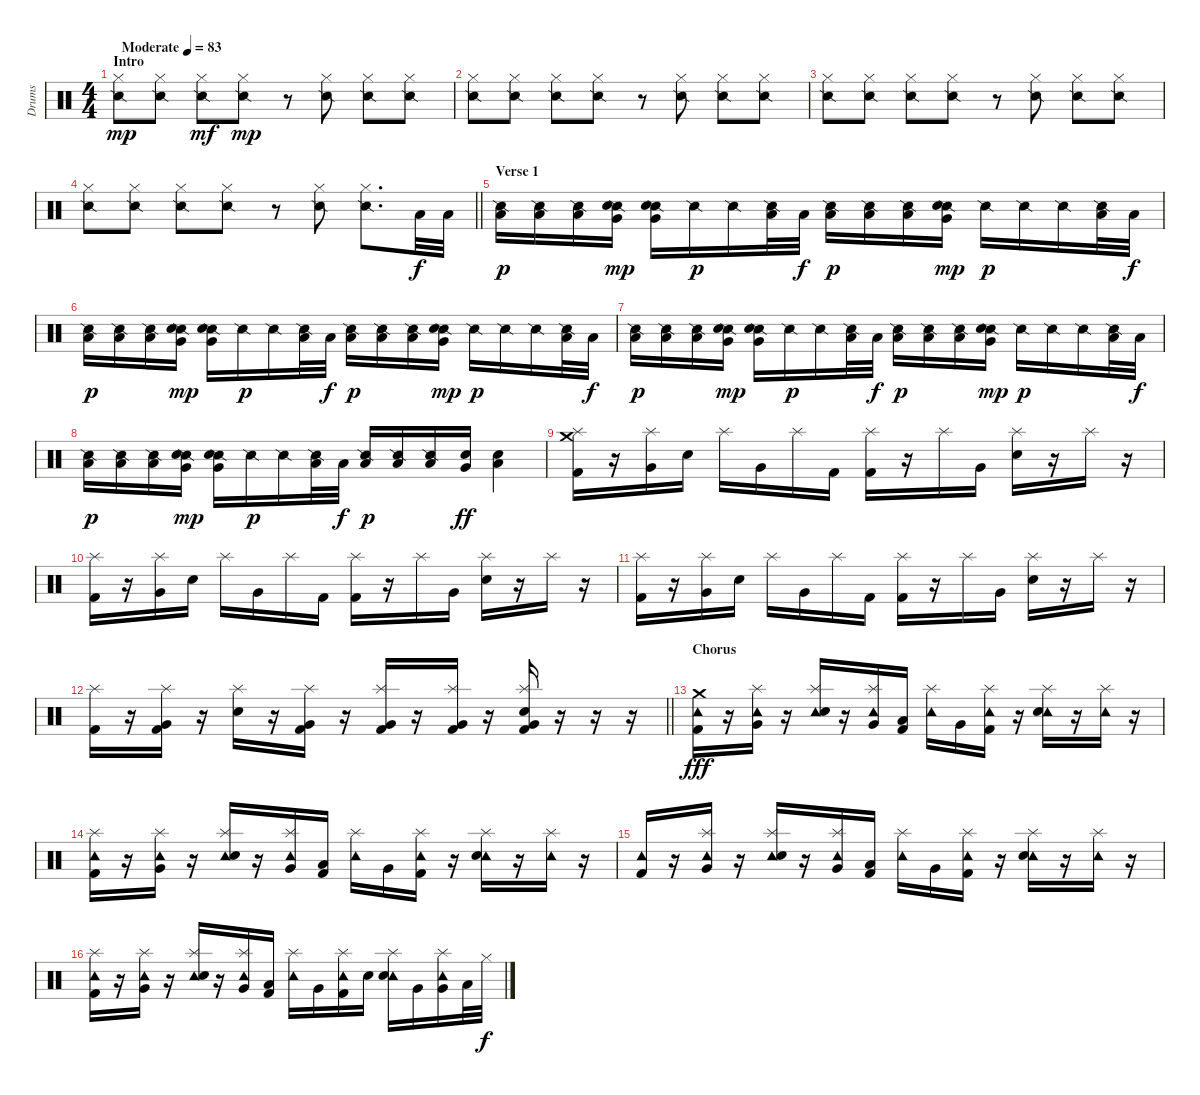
\track ("Drums" "Drums") {instrument percussion}
\staff {score}
\articulation defaults
\ts (4 4)
\section ("" "Intro")
\tempo (83 "Moderate")
\clef neutral
\ks c
("Hi-Hat (closed)" "Snare (side stick) 2").8{dy mp} ("Hi-Hat (closed)" "Snare (side stick) 2").8 ("Hi-Hat (closed)" "Snare (side stick) 2").8{dy mf} ("Hi-Hat (closed)" "Snare (side stick) 2").8{dy mp} r.8 ("Hi-Hat (closed)" "Snare (side stick) 2").8 ("Hi-Hat (closed)" "Snare (side stick) 2").8 ("Hi-Hat (closed)" "Snare (side stick) 2").8 |
("Hi-Hat (closed)" "Snare (side stick) 2").8 ("Hi-Hat (closed)" "Snare (side stick) 2").8 ("Hi-Hat (closed)" "Snare (side stick) 2").8 ("Hi-Hat (closed)" "Snare (side stick) 2").8 r.8 ("Hi-Hat (closed)" "Snare (side stick) 2").8 ("Hi-Hat (closed)" "Snare (side stick) 2").8 ("Hi-Hat (closed)" "Snare (side stick) 2").8 |
("Hi-Hat (closed)" "Snare (side stick) 2").8 ("Hi-Hat (closed)" "Snare (side stick) 2").8 ("Hi-Hat (closed)" "Snare (side stick) 2").8 ("Hi-Hat (closed)" "Snare (side stick) 2").8 r.8 ("Hi-Hat (closed)" "Snare (side stick) 2").8 ("Hi-Hat (closed)" "Snare (side stick) 2").8 ("Hi-Hat (closed)" "Snare (side stick) 2").8 |
\barLineRight lightlight
("Hi-Hat (closed)" "Snare (side stick) 2").8 ("Hi-Hat (closed)" "Snare (side stick) 2").8 ("Hi-Hat (closed)" "Snare (side stick) 2").8 ("Hi-Hat (closed)" "Snare (side stick) 2").8 r.8 ("Hi-Hat (closed)" "Snare (side stick) 2").8 ("Hi-Hat (closed)" "Snare (side stick) 2").8{d} "Low Floor Tom (hit)".32{dy f} "Low Floor Tom (hit)".32 |
\section ("" "Verse 1")
("Snare (side stick) 2" "Low Floor Tom (hit)").16{dy p} ("Snare (side stick) 2" "Low Floor Tom (hit)").16 ("Snare (side stick) 2" "Low Floor Tom (hit)").16 ("Snare (side stick) 2" "Very Low Tom (hit)" "Snare (hit) 2").16{dy mp} ("Snare (side stick) 2" "Very Low Tom (hit)" "Snare (hit) 2").16 "Snare (side stick) 2".16{dy p} "Snare (side stick) 2".16 ("Snare (side stick) 2" "Low Floor Tom (hit)").32 "Low Floor Tom (hit)".32{dy f} ("Snare (side stick) 2" "Low Floor Tom (hit)").16{dy p} ("Snare (side stick) 2" "Low Floor Tom (hit)").16 ("Snare (side stick) 2" "Low Floor Tom (hit)").16 ("Snare (side stick) 2" "Very Low Tom (hit)" "Snare (hit) 2").16{dy mp} "Snare (side stick) 2".16{dy p} "Snare (side stick) 2".16 "Snare (side stick) 2".16 ("Snare (side stick) 2" "Low Floor Tom (hit)").32 "Low Floor Tom (hit)".32{dy f} |
("Snare (side stick) 2" "Low Floor Tom (hit)").16{dy p} ("Snare (side stick) 2" "Low Floor Tom (hit)").16 ("Snare (side stick) 2" "Low Floor Tom (hit)").16 ("Snare (side stick) 2" "Very Low Tom (hit)" "Snare (hit) 2").16{dy mp} ("Snare (side stick) 2" "Very Low Tom (hit)" "Snare (hit) 2").16 "Snare (side stick) 2".16{dy p} "Snare (side stick) 2".16 ("Snare (side stick) 2" "Low Floor Tom (hit)").32 "Low Floor Tom (hit)".32{dy f} ("Snare (side stick) 2" "Low Floor Tom (hit)").16{dy p} ("Snare (side stick) 2" "Low Floor Tom (hit)").16 ("Snare (side stick) 2" "Low Floor Tom (hit)").16 ("Snare (side stick) 2" "Very Low Tom (hit)" "Snare (hit) 2").16{dy mp} "Snare (side stick) 2".16{dy p} "Snare (side stick) 2".16 "Snare (side stick) 2".16 ("Snare (side stick) 2" "Low Floor Tom (hit)").32 "Low Floor Tom (hit)".32{dy f} |
("Snare (side stick) 2" "Low Floor Tom (hit)").16{dy p} ("Snare (side stick) 2" "Low Floor Tom (hit)").16 ("Snare (side stick) 2" "Low Floor Tom (hit)").16 ("Snare (side stick) 2" "Very Low Tom (hit)" "Snare (hit) 2").16{dy mp} ("Snare (side stick) 2" "Very Low Tom (hit)" "Snare (hit) 2").16 "Snare (side stick) 2".16{dy p} "Snare (side stick) 2".16 ("Snare (side stick) 2" "Low Floor Tom (hit)").32 "Low Floor Tom (hit)".32{dy f} ("Snare (side stick) 2" "Low Floor Tom (hit)").16{dy p} ("Snare (side stick) 2" "Low Floor Tom (hit)").16 ("Snare (side stick) 2" "Low Floor Tom (hit)").16 ("Snare (side stick) 2" "Very Low Tom (hit)" "Snare (hit) 2").16{dy mp} "Snare (side stick) 2".16{dy p} "Snare (side stick) 2".16 "Snare (side stick) 2".16 ("Snare (side stick) 2" "Low Floor Tom (hit)").32 "Low Floor Tom (hit)".32{dy f} |
("Snare (side stick) 2" "Low Floor Tom (hit)").16{dy p} ("Snare (side stick) 2" "Low Floor Tom (hit)").16 ("Snare (side stick) 2" "Low Floor Tom (hit)").16 ("Snare (side stick) 2" "Very Low Tom (hit)" "Snare (hit) 2").16{dy mp} ("Snare (side stick) 2" "Very Low Tom (hit)" "Snare (hit) 2").16 "Snare (side stick) 2".16{dy p} "Snare (side stick) 2".16 ("Snare (side stick) 2" "Low Floor Tom (hit)").32 "Low Floor Tom (hit)".32{dy f} ("Snare (side stick) 2" "Low Floor Tom (hit)").16{dy p} ("Snare (side stick) 2" "Low Floor Tom (hit)").16 ("Snare (side stick) 2" "Low Floor Tom (hit)").16 ("Snare (hit) 2" "Very Low Tom (hit)").16{dy ff} ("Snare (hit) 2" "Low Floor Tom (hit)").4 |
("Crash medium (hit)" "Splash (hit)" "Kick (hit) 2").16 r.16 ("Splash (hit)" "Very Low Tom (hit)").16 "Snare (hit) 2".16 "Splash (hit)".16 "Very Low Tom (hit)".16 "Splash (hit)".16 "Kick (hit) 2".16 ("Splash (hit)" "Kick (hit) 2").16 r.16 "Splash (hit)".16 "Very Low Tom (hit)".16 ("Splash (hit)" "Snare (hit) 2").16 r.16 "Splash (hit)".16 r.16 |
("Splash (hit)" "Kick (hit) 2").16 r.16 ("Splash (hit)" "Very Low Tom (hit)").16 "Snare (hit) 2".16 "Splash (hit)".16 "Very Low Tom (hit)".16 "Splash (hit)".16 "Kick (hit) 2".16 ("Splash (hit)" "Kick (hit) 2").16 r.16 "Splash (hit)".16 "Very Low Tom (hit)".16 ("Splash (hit)" "Snare (hit) 2").16 r.16 "Splash (hit)".16 r.16 |
("Splash (hit)" "Kick (hit) 2").16 r.16 ("Splash (hit)" "Very Low Tom (hit)").16 "Snare (hit) 2".16 "Splash (hit)".16 "Very Low Tom (hit)".16 "Splash (hit)".16 "Kick (hit) 2".16 ("Splash (hit)" "Kick (hit) 2").16 r.16 "Splash (hit)".16 "Very Low Tom (hit)".16 ("Splash (hit)" "Snare (hit) 2").16 r.16 "Splash (hit)".16 r.16 |
\barLineRight lightlight
("Splash (hit)" "Kick (hit) 2").16 r.16 ("Splash (hit)" "Very Low Tom (hit)" "Kick (hit) 2").16 r.16 ("Splash (hit)" "Snare (hit) 2").16 r.16 ("Splash (hit)" "Very Low Tom (hit)" "Kick (hit) 2").16 r.16 ("Splash (hit)" "Very Low Tom (hit)" "Kick (hit) 2").16 r.16 ("Splash (hit)" "Very Low Tom (hit)" "Kick (hit) 2").16 r.16 ("Splash (hit)" "Snare (hit) 2" "Very Low Tom (hit)" "Kick (hit) 2").16 r.16 r.16 r.16 |
\section ("" "Chorus")
("Crash medium (hit)" "Tambourine (hit)" "Kick (hit) 2").16{dy fff} r.16 ("Splash (hit)" "Tambourine (hit)" "Very Low Tom (hit)").16 r.16 ("Splash (hit)" "Tambourine (hit)" "Snare (hit) 2").16 r.16 ("Splash (hit)" "Tambourine (hit)" "Very Low Tom (hit)").16 ("Low Floor Tom (hit)" "Kick (hit) 2").16 ("Splash (hit)" "Tambourine (hit)").16 "Very Low Tom (hit)".16 ("Splash (hit)" "Tambourine (hit)" "Kick (hit) 2").16 r.16 ("Splash (hit)" "Tambourine (hit)" "Snare (hit) 2").16 r.16 ("Splash (hit)" "Tambourine (hit)").16 r.16 |
("Splash (hit)" "Tambourine (hit)" "Kick (hit) 2").16 r.16 ("Splash (hit)" "Tambourine (hit)" "Very Low Tom (hit)").16 r.16 ("Splash (hit)" "Tambourine (hit)" "Snare (hit) 2").16 r.16 ("Splash (hit)" "Tambourine (hit)" "Very Low Tom (hit)").16 ("Low Floor Tom (hit)" "Kick (hit) 2").16 ("Splash (hit)" "Tambourine (hit)").16 "Very Low Tom (hit)".16 ("Splash (hit)" "Tambourine (hit)" "Kick (hit) 2").16 r.16 ("Splash (hit)" "Tambourine (hit)" "Snare (hit) 2").16 r.16 ("Splash (hit)" "Tambourine (hit)").16 r.16 |
("Tambourine (hit)" "Kick (hit) 2").16 r.16 ("Splash (hit)" "Tambourine (hit)" "Very Low Tom (hit)").16 r.16 ("Splash (hit)" "Tambourine (hit)" "Snare (hit) 2").16 r.16 ("Splash (hit)" "Tambourine (hit)" "Very Low Tom (hit)").16 ("Low Floor Tom (hit)" "Kick (hit) 2").16 ("Splash (hit)" "Tambourine (hit)").16 "Very Low Tom (hit)".16 ("Splash (hit)" "Tambourine (hit)" "Kick (hit) 2").16 r.16 ("Splash (hit)" "Tambourine (hit)" "Snare (hit) 2").16 r.16 ("Splash (hit)" "Tambourine (hit)").16 r.16 |
("Splash (hit)" "Tambourine (hit)" "Kick (hit) 2").16 r.16 ("Splash (hit)" "Tambourine (hit)" "Very Low Tom (hit)").16 r.16 ("Splash (hit)" "Tambourine (hit)" "Snare (hit) 2").16 r.16 ("Splash (hit)" "Tambourine (hit)" "Very Low Tom (hit)").16 ("Low Floor Tom (hit)" "Kick (hit) 2").16 ("Splash (hit)" "Tambourine (hit)").16 "Very Low Tom (hit)".16 ("Splash (hit)" "Tambourine (hit)" "Kick (hit) 2").16 "Snare (hit) 2".16 ("Splash (hit)" "Tambourine (hit)" "Snare (hit) 2").16 "Very Low Tom (hit)".16 ("Splash (hit)" "Tambourine (hit)" "Very Low Tom (hit)").16 "Low Floor Tom (hit)".32 "Hi-Hat (closed)".32{dy f}
